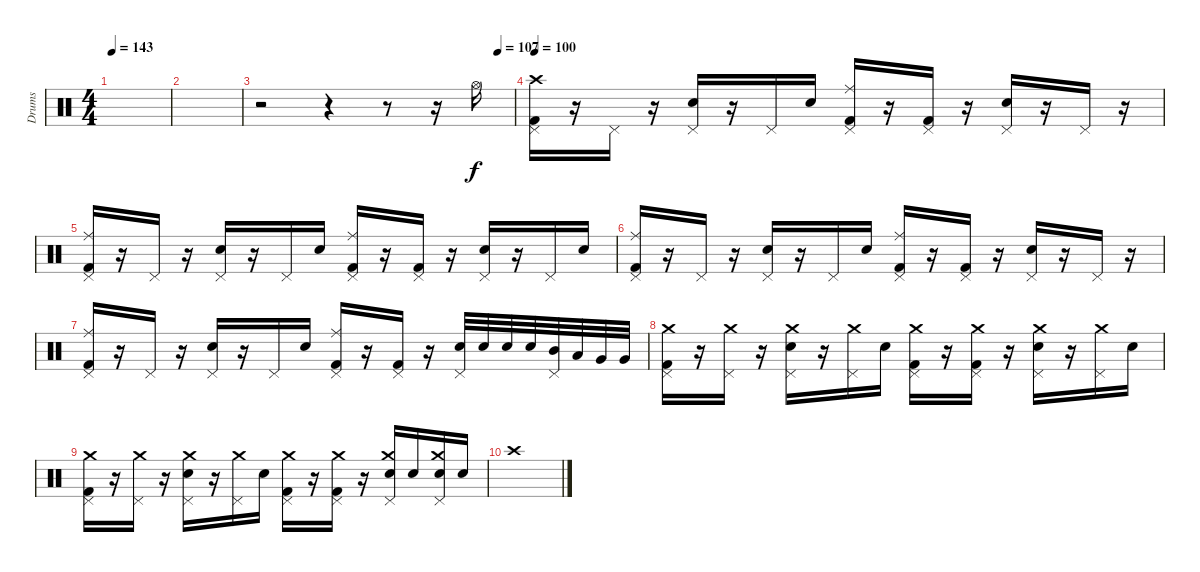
\track ("Drums" "Drums") {instrument percussion}
\staff {score}
\articulation defaults
\ts (4 4)
\tempo 143
\clef neutral
\ks c
|
|
\tempo (107 0.9375)
r.2 r.4 r.8 r.16 "Hi-Hat (open)".16 |
\tempo 100
("Crash high (hit)" "Kick (hit) 2" "Pedal Hi-Hat (hit)").16 r.16 "Pedal Hi-Hat (hit)".16 r.16 ("Snare (hit) 2" "Pedal Hi-Hat (hit)").16 r.16 "Pedal Hi-Hat (hit)".16 "Snare (hit) 2".16 ("Ride (middle)" "Kick (hit) 2" "Pedal Hi-Hat (hit)").16 r.16 ("Kick (hit) 2" "Pedal Hi-Hat (hit)").16 r.16 ("Snare (hit) 2" "Pedal Hi-Hat (hit)").16 r.16 "Pedal Hi-Hat (hit)".16 r.16 |
("Ride (middle)" "Kick (hit) 2" "Pedal Hi-Hat (hit)").16 r.16 "Pedal Hi-Hat (hit)".16 r.16 ("Snare (hit) 2" "Pedal Hi-Hat (hit)").16 r.16 "Pedal Hi-Hat (hit)".16 "Snare (hit) 2".16 ("Ride (middle)" "Kick (hit) 2" "Pedal Hi-Hat (hit)").16 r.16 ("Kick (hit) 2" "Pedal Hi-Hat (hit)").16 r.16 ("Snare (hit) 2" "Pedal Hi-Hat (hit)").16 r.16 "Pedal Hi-Hat (hit)".16 "Snare (hit) 2".16 |
("Ride (middle)" "Kick (hit) 2" "Pedal Hi-Hat (hit)").16 r.16 "Pedal Hi-Hat (hit)".16 r.16 ("Snare (hit) 2" "Pedal Hi-Hat (hit)").16 r.16 "Pedal Hi-Hat (hit)".16 "Snare (hit) 2".16 ("Ride (middle)" "Kick (hit) 2" "Pedal Hi-Hat (hit)").16 r.16 ("Kick (hit) 2" "Pedal Hi-Hat (hit)").16 r.16 ("Snare (hit) 2" "Pedal Hi-Hat (hit)").16 r.16 "Pedal Hi-Hat (hit)".16 r.16 |
("Ride (middle)" "Kick (hit) 2" "Pedal Hi-Hat (hit)").16 r.16 "Pedal Hi-Hat (hit)".16 r.16 ("Snare (hit) 2" "Pedal Hi-Hat (hit)").16 r.16 "Pedal Hi-Hat (hit)".16 "Snare (hit) 2".16 ("Ride (middle)" "Kick (hit) 2" "Pedal Hi-Hat (hit)").16 r.16 ("Kick (hit) 2" "Pedal Hi-Hat (hit)").16 r.16 ("Snare (hit) 2" "Pedal Hi-Hat (hit)").32 "Snare (hit) 2".32 "Snare (hit) 2".32 "Snare (hit) 2".32 ("Mid Tom (hit)" "Pedal Hi-Hat (hit)").32 "Low Tom (hit)".32 "Very Low Tom (hit)".32 "Very Low Tom (hit)".32 |
("Crash medium (hit)" "Kick (hit) 2" "Pedal Hi-Hat (hit)").16 r.16 ("Crash medium (hit)" "Pedal Hi-Hat (hit)").16 r.16 ("Crash medium (hit)" "Electric Snare (hit)" "Pedal Hi-Hat (hit)").16 r.16 ("Crash medium (hit)" "Pedal Hi-Hat (hit)").16 "Electric Snare (hit)".16 ("Crash medium (hit)" "Kick (hit) 2" "Pedal Hi-Hat (hit)").16 r.16 ("Crash medium (hit)" "Kick (hit) 2" "Pedal Hi-Hat (hit)").16 r.16 ("Crash medium (hit)" "Electric Snare (hit)" "Pedal Hi-Hat (hit)").16 r.16 ("Crash medium (hit)" "Pedal Hi-Hat (hit)").16 "Electric Snare (hit)".16 |
("Crash medium (hit)" "Kick (hit) 2" "Pedal Hi-Hat (hit)").16 r.16 ("Crash medium (hit)" "Pedal Hi-Hat (hit)").16 r.16 ("Crash medium (hit)" "Electric Snare (hit)" "Pedal Hi-Hat (hit)").16 r.16 ("Crash medium (hit)" "Pedal Hi-Hat (hit)").16 "Electric Snare (hit)".16 ("Crash medium (hit)" "Kick (hit) 2" "Pedal Hi-Hat (hit)").16 r.16 ("Crash medium (hit)" "Kick (hit) 2" "Pedal Hi-Hat (hit)").16 r.16 ("Crash medium (hit)" "Electric Snare (hit)" "Pedal Hi-Hat (hit)").16 "Electric Snare (hit)".16 ("Crash medium (hit)" "Electric Snare (hit)" "Pedal Hi-Hat (hit)").16 "Electric Snare (hit)".16 |
"Crash high (hit)".1
